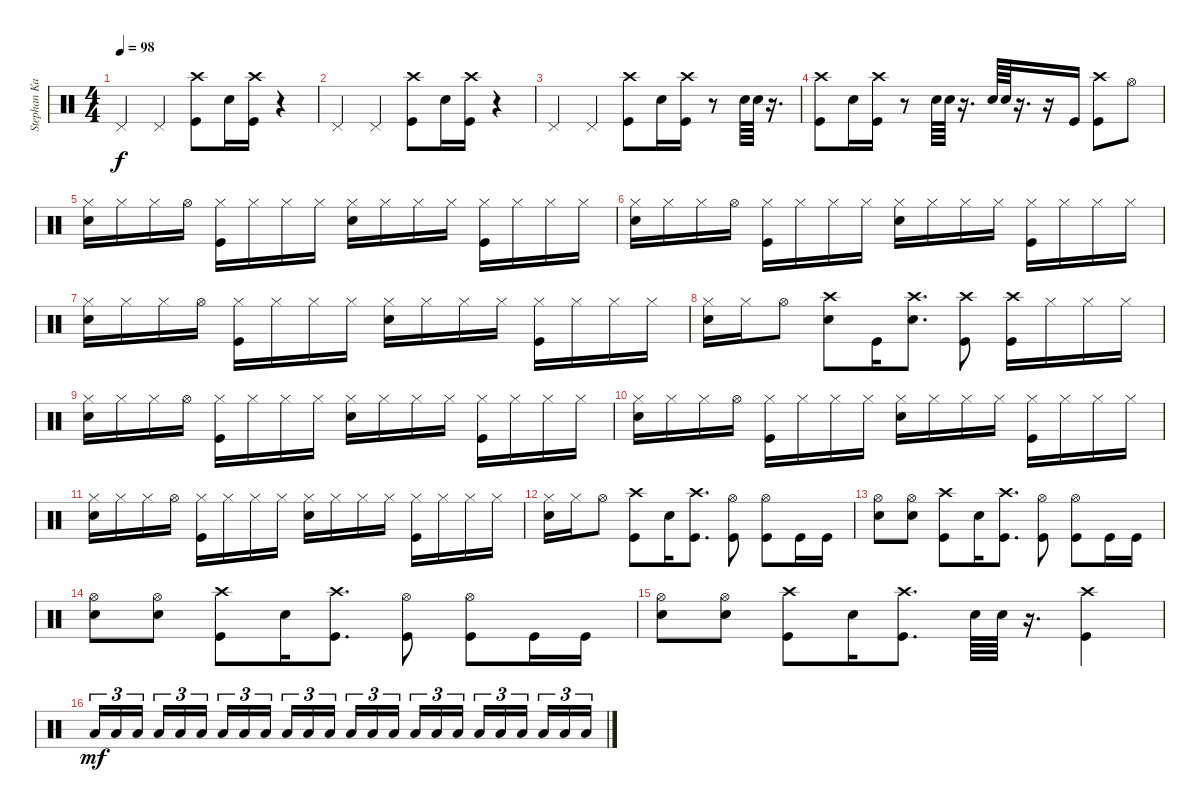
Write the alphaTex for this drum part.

\track ("Stephan Kaufmann" "Stephan Ka") {instrument percussion}
\staff {score}
\articulation defaults
\ts (4 4)
\tempo 98
\clef neutral
\ks c "Pedal Hi-Hat (hit)".4{dy f} "Pedal Hi-Hat (hit)".4
("Crash high (hit)" "Kick (hit)").8 "Snare (hit) 2".16 ("Crash high (hit)" "Kick (hit)").16 r.4 |
"Pedal Hi-Hat (hit)".4 "Pedal Hi-Hat (hit)".4 ("Crash high (hit)" "Kick (hit)").8 "Snare (hit) 2".16 ("Crash high (hit)" "Kick (hit)").16 r.4 |
"Pedal Hi-Hat (hit)".4 "Pedal Hi-Hat (hit)".4 ("Crash high (hit)" "Kick (hit)").8 "Snare (hit) 2".16 ("Crash high (hit)" "Kick (hit)").16 r.8 "Snare (hit) 2".64 "Snare (hit) 2".64 r.16{d} |
("Crash high (hit)" "Kick (hit)").8 "Snare (hit) 2".16 ("Crash high (hit)" "Kick (hit)").16 r.8 "Snare (hit) 2".64 "Snare (hit) 2".64 r.16{d} "Snare (hit) 2".64 "Snare (hit) 2".64 r.16{d} r.16 "Kick (hit)".16 ("Crash high (hit)" "Kick (hit)").8 "Hi-Hat (open)".8 |
("Hi-Hat (closed)" "Snare (hit) 2").16 "Hi-Hat (closed)".16 "Hi-Hat (closed)".16 "Hi-Hat (open)".16 ("Hi-Hat (closed)" "Kick (hit)").16 "Hi-Hat (closed)".16 "Hi-Hat (closed)".16 "Hi-Hat (closed)".16 ("Hi-Hat (closed)" "Snare (hit) 2").16 "Hi-Hat (closed)".16 "Hi-Hat (closed)".16 "Hi-Hat (closed)".16 ("Hi-Hat (closed)" "Kick (hit)").16 "Hi-Hat (closed)".16 "Hi-Hat (closed)".16 "Hi-Hat (closed)".16 |
("Hi-Hat (closed)" "Snare (hit) 2").16 "Hi-Hat (closed)".16 "Hi-Hat (closed)".16 "Hi-Hat (open)".16 ("Hi-Hat (closed)" "Kick (hit)").16 "Hi-Hat (closed)".16 "Hi-Hat (closed)".16 "Hi-Hat (closed)".16 ("Hi-Hat (closed)" "Snare (hit) 2").16 "Hi-Hat (closed)".16 "Hi-Hat (closed)".16 "Hi-Hat (closed)".16 ("Hi-Hat (closed)" "Kick (hit)").16 "Hi-Hat (closed)".16 "Hi-Hat (closed)".16 "Hi-Hat (closed)".16 |
("Hi-Hat (closed)" "Snare (hit) 2").16 "Hi-Hat (closed)".16 "Hi-Hat (closed)".16 "Hi-Hat (open)".16 ("Hi-Hat (closed)" "Kick (hit)").16 "Hi-Hat (closed)".16 "Hi-Hat (closed)".16 "Hi-Hat (closed)".16 ("Hi-Hat (closed)" "Snare (hit) 2").16 "Hi-Hat (closed)".16 "Hi-Hat (closed)".16 "Hi-Hat (closed)".16 ("Hi-Hat (closed)" "Kick (hit)").16 "Hi-Hat (closed)".16 "Hi-Hat (closed)".16 "Hi-Hat (closed)".16 |
("Hi-Hat (closed)" "Snare (hit) 2").16 "Hi-Hat (closed)".16 "Hi-Hat (open)".8 ("Crash high (hit)" "Snare (hit) 2").8 "Kick (hit)".16 ("Crash high (hit)" "Snare (hit) 2").8{d} ("Crash high (hit)" "Kick (hit)").8 ("Crash high (hit)" "Kick (hit)").16 "Hi-Hat (closed)".16 "Hi-Hat (closed)".16 "Hi-Hat (closed)".16 |
("Hi-Hat (closed)" "Snare (hit) 2").16 "Hi-Hat (closed)".16 "Hi-Hat (closed)".16 "Hi-Hat (open)".16 ("Hi-Hat (closed)" "Kick (hit)").16 "Hi-Hat (closed)".16 "Hi-Hat (closed)".16 "Hi-Hat (closed)".16 ("Hi-Hat (closed)" "Snare (hit) 2").16 "Hi-Hat (closed)".16 "Hi-Hat (closed)".16 "Hi-Hat (closed)".16 ("Hi-Hat (closed)" "Kick (hit)").16 "Hi-Hat (closed)".16 "Hi-Hat (closed)".16 "Hi-Hat (closed)".16 |
("Hi-Hat (closed)" "Snare (hit) 2").16 "Hi-Hat (closed)".16 "Hi-Hat (closed)".16 "Hi-Hat (open)".16 ("Hi-Hat (closed)" "Kick (hit)").16 "Hi-Hat (closed)".16 "Hi-Hat (closed)".16 "Hi-Hat (closed)".16 ("Hi-Hat (closed)" "Snare (hit) 2").16 "Hi-Hat (closed)".16 "Hi-Hat (closed)".16 "Hi-Hat (closed)".16 ("Hi-Hat (closed)" "Kick (hit)").16 "Hi-Hat (closed)".16 "Hi-Hat (closed)".16 "Hi-Hat (closed)".16 |
("Hi-Hat (closed)" "Snare (hit) 2").16 "Hi-Hat (closed)".16 "Hi-Hat (closed)".16 "Hi-Hat (open)".16 ("Hi-Hat (closed)" "Kick (hit)").16 "Hi-Hat (closed)".16 "Hi-Hat (closed)".16 "Hi-Hat (closed)".16 ("Hi-Hat (closed)" "Snare (hit) 2").16 "Hi-Hat (closed)".16 "Hi-Hat (closed)".16 "Hi-Hat (closed)".16 ("Hi-Hat (closed)" "Kick (hit)").16 "Hi-Hat (closed)".16 "Hi-Hat (closed)".16 "Hi-Hat (closed)".16 |
("Hi-Hat (closed)" "Snare (hit) 2").16 "Hi-Hat (closed)".16 "Hi-Hat (open)".8 ("Crash high (hit)" "Kick (hit)").8 "Snare (hit) 2".16 ("Crash high (hit)" "Kick (hit)").8{d} ("Hi-Hat (open)" "Kick (hit)").8 ("Hi-Hat (open)" "Kick (hit)").8 "Kick (hit)".16 "Kick (hit)".16 |
("Hi-Hat (open)" "Snare (hit) 2").8 ("Hi-Hat (open)" "Snare (hit) 2").8 ("Crash high (hit)" "Kick (hit)").8 "Snare (hit) 2".16 ("Crash high (hit)" "Kick (hit)").8{d} ("Hi-Hat (open)" "Kick (hit)").8 ("Hi-Hat (open)" "Kick (hit)").8 "Kick (hit)".16 "Kick (hit)".16 |
("Hi-Hat (open)" "Snare (hit) 2").8 ("Hi-Hat (open)" "Snare (hit) 2").8 ("Crash high (hit)" "Kick (hit)").8 "Snare (hit) 2".16 ("Crash high (hit)" "Kick (hit)").8{d} ("Hi-Hat (open)" "Kick (hit)").8 ("Hi-Hat (open)" "Kick (hit)").8 "Kick (hit)".16 "Kick (hit)".16 |
("Hi-Hat (open)" "Snare (hit) 2").8 ("Hi-Hat (open)" "Snare (hit) 2").8 ("Crash high (hit)" "Kick (hit)").8 "Snare (hit) 2".16 ("Crash high (hit)" "Kick (hit)").8{d} "Snare (hit) 2".64 "Snare (hit) 2".64 r.16{d} ("Crash high (hit)" "Kick (hit)").4 |
"Low Floor Tom (hit)".16{tu (3 2) dy mf} "Low Floor Tom (hit)".16{tu (3 2)} "Low Floor Tom (hit)".16{tu (3 2)} "Low Floor Tom (hit)".16{tu (3 2)} "Low Floor Tom (hit)".16{tu (3 2)} "Low Floor Tom (hit)".16{tu (3 2)} "Low Floor Tom (hit)".16{tu (3 2)} "Low Floor Tom (hit)".16{tu (3 2)} "Low Floor Tom (hit)".16{tu (3 2)} "Low Floor Tom (hit)".16{tu (3 2)} "Low Floor Tom (hit)".16{tu (3 2)} "Low Floor Tom (hit)".16{tu (3 2)} "Low Floor Tom (hit)".16{tu (3 2)} "Low Floor Tom (hit)".16{tu (3 2)} "Low Floor Tom (hit)".16{tu (3 2)} "Low Floor Tom (hit)".16{tu (3 2)} "Low Floor Tom (hit)".16{tu (3 2)} "Low Floor Tom (hit)".16{tu (3 2)} "Low Floor Tom (hit)".16{tu (3 2)} "Low Floor Tom (hit)".16{tu (3 2)} "Low Floor Tom (hit)".16{tu (3 2)} "Low Floor Tom (hit)".16{tu (3 2)} "Low Floor Tom (hit)".16{tu (3 2)} "Low Floor Tom (hit)".16{tu (3 2)}
